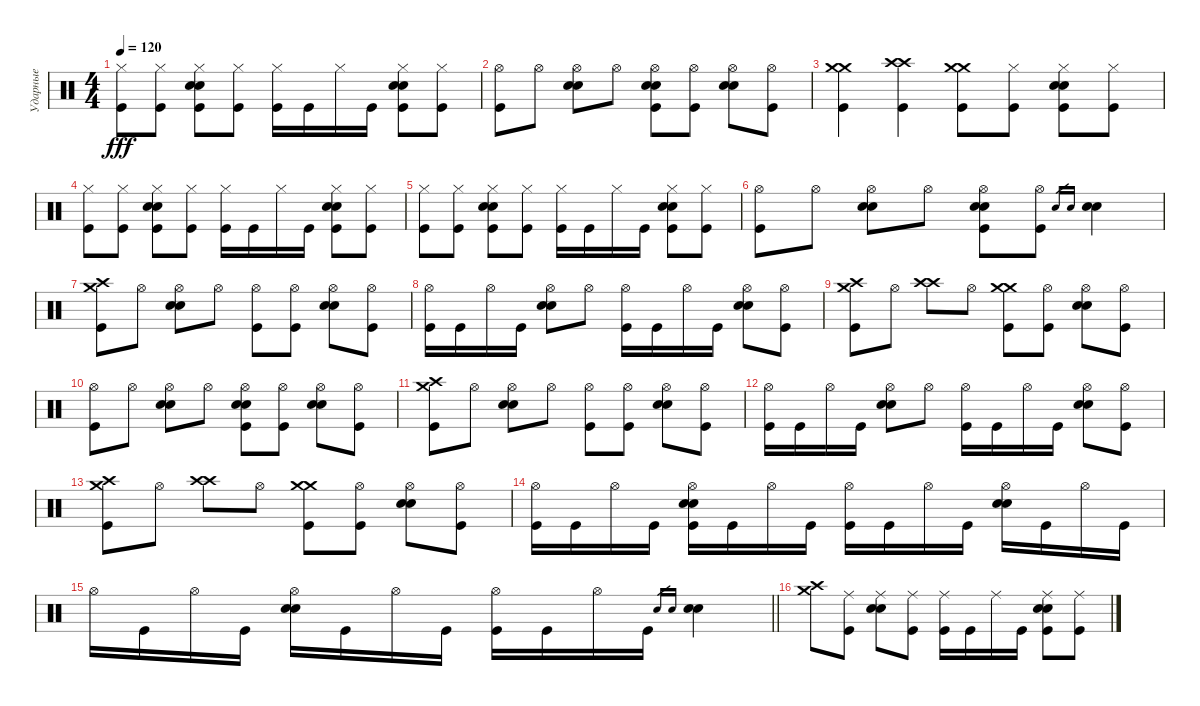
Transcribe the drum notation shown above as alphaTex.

\track ("Ударные" "Ударные") {instrument percussion}
\staff {score}
\articulation defaults
\ts (4 4)
\tempo 120
\clef neutral
\ks c
("Hi-Hat (closed)" "Kick (hit)").8{dy fff} ("Hi-Hat (closed)" "Kick (hit)").8 ("Snare (hit) 2" "Electric Snare (hit)" "Kick (hit)" "Hi-Hat (closed)").8 ("Kick (hit)" "Hi-Hat (closed)").8 ("Kick (hit)" "Hi-Hat (closed)").16 "Kick (hit)".16 "Hi-Hat (closed)".16 "Kick (hit)".16 ("Snare (hit) 2" "Electric Snare (hit)" "Kick (hit)" "Hi-Hat (closed)").8 ("Kick (hit)" "Hi-Hat (closed)").8 |
("Hi-Hat (open)" "Kick (hit)").8 "Hi-Hat (open)".8 ("Hi-Hat (open)" "Electric Snare (hit)" "Snare (hit) 2").8 "Hi-Hat (open)".8 ("Hi-Hat (open)" "Snare (hit) 2" "Electric Snare (hit)" "Kick (hit)").8 ("Hi-Hat (open)" "Kick (hit)").8 ("Hi-Hat (open)" "Electric Snare (hit)" "Snare (hit) 2").8 ("Hi-Hat (open)" "Kick (hit)").8 |
("Crash medium (hit)" "Crash medium (hit)" "Kick (hit)").4 ("Crash high (hit)" "Crash high (hit)" "Kick (hit)").4 ("Crash medium (hit)" "Crash medium (hit)" "Kick (hit)").8 ("Hi-Hat (closed)" "Kick (hit)").8 ("Snare (hit) 2" "Electric Snare (hit)" "Kick (hit)" "Hi-Hat (closed)").8 ("Hi-Hat (closed)" "Kick (hit)").8 |
("Hi-Hat (closed)" "Kick (hit)").8 ("Hi-Hat (closed)" "Kick (hit)").8 ("Snare (hit) 2" "Electric Snare (hit)" "Kick (hit)" "Hi-Hat (closed)").8 ("Kick (hit)" "Hi-Hat (closed)").8 ("Kick (hit)" "Hi-Hat (closed)").16 "Kick (hit)".16 "Hi-Hat (closed)".16 "Kick (hit)".16 ("Snare (hit) 2" "Electric Snare (hit)" "Kick (hit)" "Hi-Hat (closed)").8 ("Kick (hit)" "Hi-Hat (closed)").8 |
("Hi-Hat (closed)" "Kick (hit)").8 ("Hi-Hat (closed)" "Kick (hit)").8 ("Snare (hit) 2" "Electric Snare (hit)" "Kick (hit)" "Hi-Hat (closed)").8 ("Kick (hit)" "Hi-Hat (closed)").8 ("Kick (hit)" "Hi-Hat (closed)").16 "Kick (hit)".16 "Hi-Hat (closed)".16 "Kick (hit)".16 ("Snare (hit) 2" "Electric Snare (hit)" "Kick (hit)" "Hi-Hat (closed)").8 ("Kick (hit)" "Hi-Hat (closed)").8 |
("Hi-Hat (open)" "Kick (hit)").8 "Hi-Hat (open)".8 ("Hi-Hat (open)" "Electric Snare (hit)" "Snare (hit) 2").8 "Hi-Hat (open)".8 ("Hi-Hat (open)" "Snare (hit) 2" "Electric Snare (hit)" "Kick (hit)").8 ("Hi-Hat (open)" "Kick (hit)").8 "Electric Snare (hit)".16{gr} "Snare (hit) 2".16{gr} ("Electric Snare (hit)" "Snare (hit) 2").4 |
("Crash high (hit)" "Crash medium (hit)" "Kick (hit)").8 "Hi-Hat (open)".8 ("Hi-Hat (open)" "Electric Snare (hit)" "Snare (hit) 2").8 "Hi-Hat (open)".8 ("Hi-Hat (open)" "Kick (hit)").8 ("Hi-Hat (open)" "Kick (hit)").8 ("Hi-Hat (open)" "Electric Snare (hit)" "Snare (hit) 2").8 ("Hi-Hat (open)" "Kick (hit)").8 |
("Hi-Hat (open)" "Kick (hit)").16 "Kick (hit)".16 "Hi-Hat (open)".16 "Kick (hit)".16 ("Hi-Hat (open)" "Electric Snare (hit)" "Snare (hit) 2").8 "Hi-Hat (open)".8 ("Hi-Hat (open)" "Kick (hit)").16 "Kick (hit)".16 "Hi-Hat (open)".16 "Kick (hit)".16 ("Hi-Hat (open)" "Electric Snare (hit)" "Snare (hit) 2").8 ("Hi-Hat (open)" "Kick (hit)").8 |
("Crash high (hit)" "Crash medium (hit)" "Kick (hit)").8 "Hi-Hat (open)".8 ("Crash high (hit)" "Crash high (hit)").8 "Hi-Hat (open)".8 ("Crash medium (hit)" "Crash medium (hit)" "Kick (hit)").8 ("Hi-Hat (open)" "Kick (hit)").8 ("Hi-Hat (open)" "Electric Snare (hit)" "Snare (hit) 2").8 ("Hi-Hat (open)" "Kick (hit)").8 |
("Hi-Hat (open)" "Kick (hit)").8 "Hi-Hat (open)".8 ("Hi-Hat (open)" "Electric Snare (hit)" "Snare (hit) 2").8 "Hi-Hat (open)".8 ("Hi-Hat (open)" "Snare (hit) 2" "Electric Snare (hit)" "Kick (hit)").8 ("Hi-Hat (open)" "Kick (hit)").8 ("Hi-Hat (open)" "Electric Snare (hit)" "Snare (hit) 2").8 ("Hi-Hat (open)" "Kick (hit)").8 |
("Crash high (hit)" "Crash medium (hit)" "Kick (hit)").8 "Hi-Hat (open)".8 ("Hi-Hat (open)" "Electric Snare (hit)" "Snare (hit) 2").8 "Hi-Hat (open)".8 ("Hi-Hat (open)" "Kick (hit)").8 ("Hi-Hat (open)" "Kick (hit)").8 ("Hi-Hat (open)" "Electric Snare (hit)" "Snare (hit) 2").8 ("Hi-Hat (open)" "Kick (hit)").8 |
("Hi-Hat (open)" "Kick (hit)").16 "Kick (hit)".16 "Hi-Hat (open)".16 "Kick (hit)".16 ("Hi-Hat (open)" "Electric Snare (hit)" "Snare (hit) 2").8 "Hi-Hat (open)".8 ("Hi-Hat (open)" "Kick (hit)").16 "Kick (hit)".16 "Hi-Hat (open)".16 "Kick (hit)".16 ("Hi-Hat (open)" "Electric Snare (hit)" "Snare (hit) 2").8 ("Hi-Hat (open)" "Kick (hit)").8 |
("Crash high (hit)" "Crash medium (hit)" "Kick (hit)").8 "Hi-Hat (open)".8 ("Crash high (hit)" "Crash high (hit)").8 "Hi-Hat (open)".8 ("Crash medium (hit)" "Crash medium (hit)" "Kick (hit)").8 ("Hi-Hat (open)" "Kick (hit)").8 ("Hi-Hat (open)" "Electric Snare (hit)" "Snare (hit) 2").8 ("Hi-Hat (open)" "Kick (hit)").8 |
("Hi-Hat (open)" "Kick (hit)").16 "Kick (hit)".16 "Hi-Hat (open)".16 "Kick (hit)".16 ("Hi-Hat (open)" "Electric Snare (hit)" "Snare (hit) 2" "Kick (hit)").16 "Kick (hit)".16 "Hi-Hat (open)".16 "Kick (hit)".16 ("Hi-Hat (open)" "Kick (hit)").16 "Kick (hit)".16 "Hi-Hat (open)".16 "Kick (hit)".16 ("Hi-Hat (open)" "Snare (hit) 2" "Electric Snare (hit)").16 "Kick (hit)".16 "Hi-Hat (open)".16 "Kick (hit)".16 |
\barLineRight lightlight "Hi-Hat (open)".16 "Kick (hit)".16 "Hi-Hat (open)".16 "Kick (hit)".16
("Hi-Hat (open)" "Electric Snare (hit)" "Snare (hit) 2").16 "Kick (hit)".16 "Hi-Hat (open)".16 "Kick (hit)".16 ("Hi-Hat (open)" "Kick (hit)").16 "Kick (hit)".16 "Hi-Hat (open)".16 "Kick (hit)".16 "Snare (hit) 2".16{gr} "Snare (hit) 2".16{gr} ("Snare (hit) 2" "Snare (hit) 2").4 |
("Crash high (hit)" "Crash medium (hit)").8 ("Ride (middle)" "Kick (hit)").8 ("Ride (middle)" "Snare (hit) 2" "Electric Snare (hit)").8 ("Ride (middle)" "Kick (hit)").8 ("Ride (middle)" "Kick (hit)").16 "Kick (hit)".16 "Ride (middle)".16 "Kick (hit)".16 ("Electric Snare (hit)" "Snare (hit) 2" "Ride (middle)" "Kick (hit)").8 ("Ride (middle)" "Kick (hit)").8
